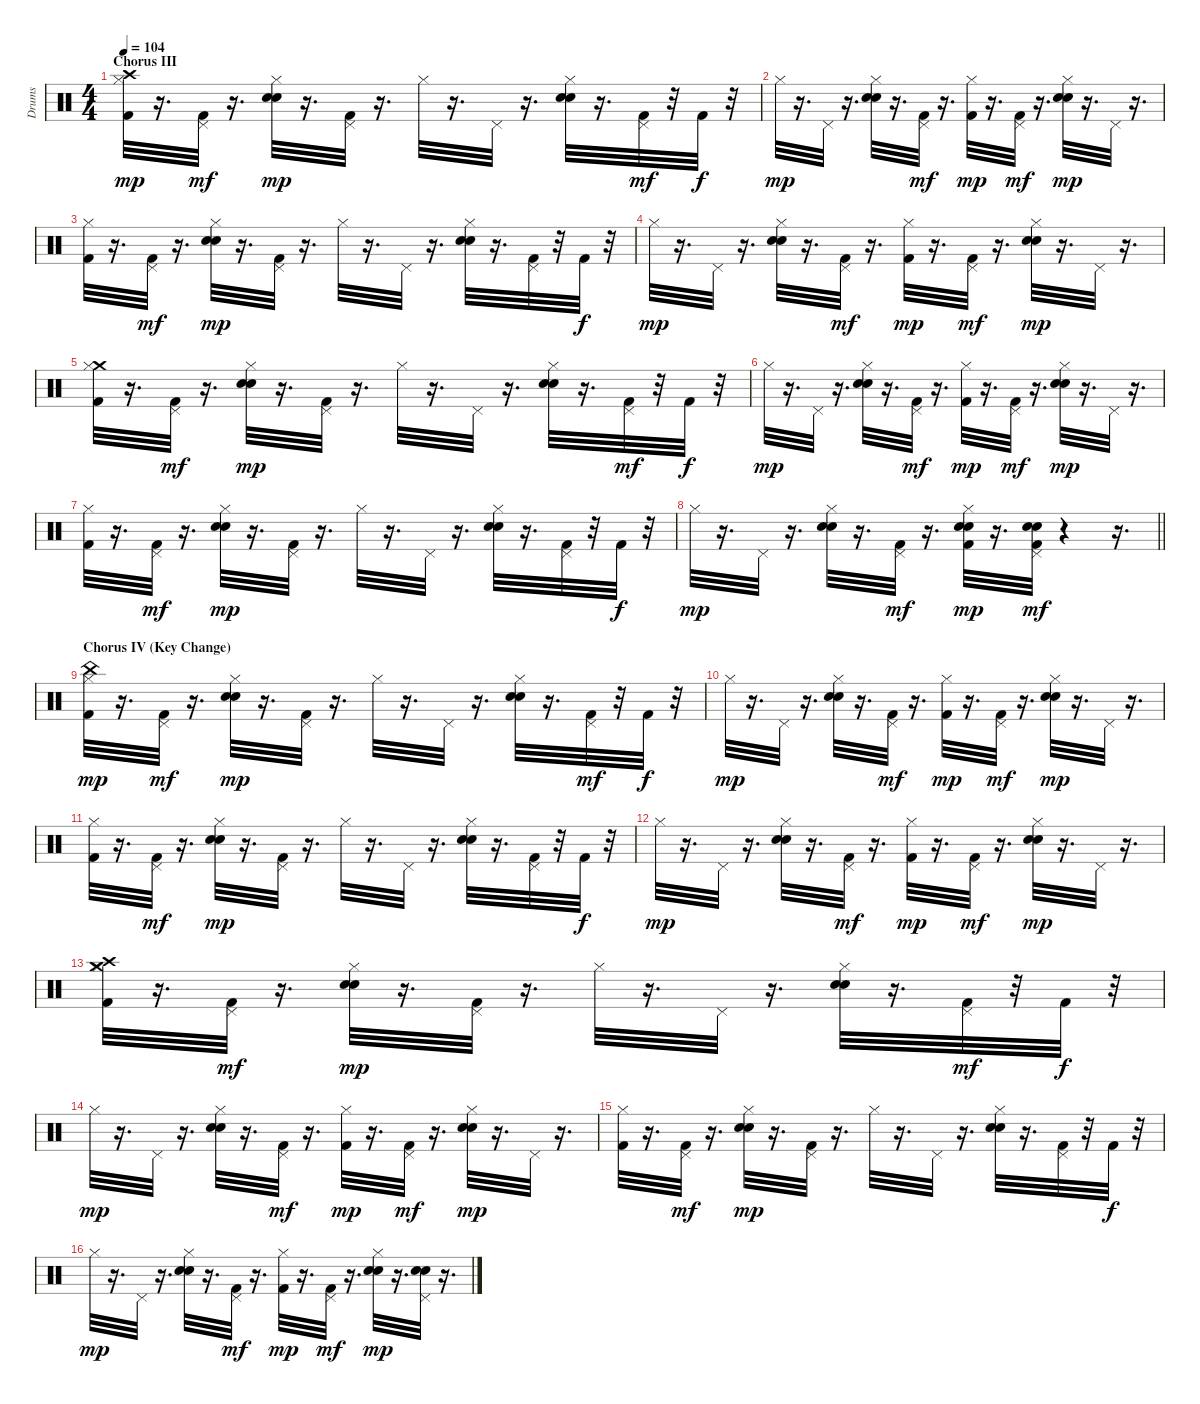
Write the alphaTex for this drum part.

\track ("Drums" "Drums") {instrument percussion}
\staff {score}
\articulation defaults
\ts (4 4)
\section ("" "Chorus III")
\tempo 104
\clef neutral
\ks c
("Crash high (hit)" "Hi-Hat (closed)" "Kick (hit) 2").32{dy mp} r.16{d} ("Pedal Hi-Hat (hit)" "Kick (hit) 2").32{dy mf} r.16{d} ("Hi-Hat (closed)" "Electric Snare (hit)" "Hand Clap (hit)").32{dy mp} r.16{d} ("Pedal Hi-Hat (hit)" "Kick (hit) 2").32 r.16{d} "Hi-Hat (closed)".32 r.16{d} "Pedal Hi-Hat (hit)".32 r.16{d} ("Hi-Hat (closed)" "Electric Snare (hit)" "Hand Clap (hit)").32 r.16{d} ("Pedal Hi-Hat (hit)" "Kick (hit) 2").32{dy mf} r.32 "Kick (hit) 2".32{dy f} r.32 |
"Hi-Hat (closed)".32{dy mp} r.16{d} "Pedal Hi-Hat (hit)".32 r.16{d} ("Hi-Hat (closed)" "Electric Snare (hit)" "Hand Clap (hit)").32 r.16{d} ("Pedal Hi-Hat (hit)" "Kick (hit) 2").32{dy mf} r.16{d} ("Hi-Hat (closed)" "Kick (hit) 2").32{dy mp} r.16{d} ("Pedal Hi-Hat (hit)" "Kick (hit) 2").32{dy mf} r.16{d} ("Hi-Hat (closed)" "Electric Snare (hit)" "Hand Clap (hit)").32{dy mp} r.16{d} "Pedal Hi-Hat (hit)".32 r.16{d} |
("Hi-Hat (closed)" "Kick (hit) 2").32 r.16{d} ("Pedal Hi-Hat (hit)" "Kick (hit) 2").32{dy mf} r.16{d} ("Hi-Hat (closed)" "Electric Snare (hit)" "Hand Clap (hit)").32{dy mp} r.16{d} ("Pedal Hi-Hat (hit)" "Kick (hit) 2").32 r.16{d} "Hi-Hat (closed)".32 r.16{d} "Pedal Hi-Hat (hit)".32 r.16{d} ("Hi-Hat (closed)" "Electric Snare (hit)" "Hand Clap (hit)").32 r.16{d} ("Pedal Hi-Hat (hit)" "Kick (hit) 2").32 r.32 "Kick (hit) 2".32{dy f} r.32 |
"Hi-Hat (closed)".32{dy mp} r.16{d} "Pedal Hi-Hat (hit)".32 r.16{d} ("Hi-Hat (closed)" "Electric Snare (hit)" "Hand Clap (hit)").32 r.16{d} ("Pedal Hi-Hat (hit)" "Kick (hit) 2").32{dy mf} r.16{d} ("Hi-Hat (closed)" "Kick (hit) 2").32{dy mp} r.16{d} ("Pedal Hi-Hat (hit)" "Kick (hit) 2").32{dy mf} r.16{d} ("Hi-Hat (closed)" "Electric Snare (hit)" "Hand Clap (hit)").32{dy mp} r.16{d} "Pedal Hi-Hat (hit)".32 r.16{d} |
("Crash medium (hit)" "Hi-Hat (closed)" "Kick (hit) 2").32 r.16{d} ("Pedal Hi-Hat (hit)" "Kick (hit) 2").32{dy mf} r.16{d} ("Hi-Hat (closed)" "Electric Snare (hit)" "Hand Clap (hit)").32{dy mp} r.16{d} ("Pedal Hi-Hat (hit)" "Kick (hit) 2").32 r.16{d} "Hi-Hat (closed)".32 r.16{d} "Pedal Hi-Hat (hit)".32 r.16{d} ("Hi-Hat (closed)" "Electric Snare (hit)" "Hand Clap (hit)").32 r.16{d} ("Pedal Hi-Hat (hit)" "Kick (hit) 2").32{dy mf} r.32 "Kick (hit) 2".32{dy f} r.32 |
"Hi-Hat (closed)".32{dy mp} r.16{d} "Pedal Hi-Hat (hit)".32 r.16{d} ("Hi-Hat (closed)" "Electric Snare (hit)" "Hand Clap (hit)").32 r.16{d} ("Pedal Hi-Hat (hit)" "Kick (hit) 2").32{dy mf} r.16{d} ("Hi-Hat (closed)" "Kick (hit) 2").32{dy mp} r.16{d} ("Pedal Hi-Hat (hit)" "Kick (hit) 2").32{dy mf} r.16{d} ("Hi-Hat (closed)" "Electric Snare (hit)" "Hand Clap (hit)").32{dy mp} r.16{d} "Pedal Hi-Hat (hit)".32 r.16{d} |
("Hi-Hat (closed)" "Kick (hit) 2").32 r.16{d} ("Pedal Hi-Hat (hit)" "Kick (hit) 2").32{dy mf} r.16{d} ("Hi-Hat (closed)" "Electric Snare (hit)" "Hand Clap (hit)").32{dy mp} r.16{d} ("Pedal Hi-Hat (hit)" "Kick (hit) 2").32 r.16{d} "Hi-Hat (closed)".32 r.16{d} "Pedal Hi-Hat (hit)".32 r.16{d} ("Hi-Hat (closed)" "Electric Snare (hit)" "Hand Clap (hit)").32 r.16{d} ("Pedal Hi-Hat (hit)" "Kick (hit) 2").32 r.32 "Kick (hit) 2".32{dy f} r.32 |
\barLineRight lightlight "Hi-Hat (closed)".32{dy mp}
r.16{d} "Pedal Hi-Hat (hit)".32 r.16{d} ("Hi-Hat (closed)" "Electric Snare (hit)" "Hand Clap (hit)").32 r.16{d} ("Pedal Hi-Hat (hit)" "Kick (hit) 2").32{dy mf} r.16{d} ("Hi-Hat (closed)" "Electric Snare (hit)" "Hand Clap (hit)" "Kick (hit) 2").32{dy mp} r.16{d} ("Pedal Hi-Hat (hit)" "Electric Snare (hit)" "Hand Clap (hit)" "Kick (hit) 2").32{dy mf} r.4 r.16{d} |
\section ("" "Chorus IV (Key Change)")
("China (hit)" "Hi-Hat (closed)" "Kick (hit) 2").32{dy mp} r.16{d} ("Pedal Hi-Hat (hit)" "Kick (hit) 2").32{dy mf} r.16{d} ("Hi-Hat (closed)" "Electric Snare (hit)" "Hand Clap (hit)").32{dy mp} r.16{d} ("Pedal Hi-Hat (hit)" "Kick (hit) 2").32 r.16{d} "Hi-Hat (closed)".32 r.16{d} "Pedal Hi-Hat (hit)".32 r.16{d} ("Hi-Hat (closed)" "Electric Snare (hit)" "Hand Clap (hit)").32 r.16{d} ("Pedal Hi-Hat (hit)" "Kick (hit) 2").32{dy mf} r.32 "Kick (hit) 2".32{dy f} r.32 |
"Hi-Hat (closed)".32{dy mp} r.16{d} "Pedal Hi-Hat (hit)".32 r.16{d} ("Hi-Hat (closed)" "Electric Snare (hit)" "Hand Clap (hit)").32 r.16{d} ("Pedal Hi-Hat (hit)" "Kick (hit) 2").32{dy mf} r.16{d} ("Hi-Hat (closed)" "Kick (hit) 2").32{dy mp} r.16{d} ("Pedal Hi-Hat (hit)" "Kick (hit) 2").32{dy mf} r.16{d} ("Hi-Hat (closed)" "Electric Snare (hit)" "Hand Clap (hit)").32{dy mp} r.16{d} "Pedal Hi-Hat (hit)".32 r.16{d} |
("Hi-Hat (closed)" "Kick (hit) 2").32 r.16{d} ("Pedal Hi-Hat (hit)" "Kick (hit) 2").32{dy mf} r.16{d} ("Hi-Hat (closed)" "Electric Snare (hit)" "Hand Clap (hit)").32{dy mp} r.16{d} ("Pedal Hi-Hat (hit)" "Kick (hit) 2").32 r.16{d} "Hi-Hat (closed)".32 r.16{d} "Pedal Hi-Hat (hit)".32 r.16{d} ("Hi-Hat (closed)" "Electric Snare (hit)" "Hand Clap (hit)").32 r.16{d} ("Pedal Hi-Hat (hit)" "Kick (hit) 2").32 r.32 "Kick (hit) 2".32{dy f} r.32 |
"Hi-Hat (closed)".32{dy mp} r.16{d} "Pedal Hi-Hat (hit)".32 r.16{d} ("Hi-Hat (closed)" "Electric Snare (hit)" "Hand Clap (hit)").32 r.16{d} ("Pedal Hi-Hat (hit)" "Kick (hit) 2").32{dy mf} r.16{d} ("Hi-Hat (closed)" "Kick (hit) 2").32{dy mp} r.16{d} ("Pedal Hi-Hat (hit)" "Kick (hit) 2").32{dy mf} r.16{d} ("Hi-Hat (closed)" "Electric Snare (hit)" "Hand Clap (hit)").32{dy mp} r.16{d} "Pedal Hi-Hat (hit)".32 r.16{d} |
("Crash medium (hit)" "Crash high (hit)" "Hi-Hat (closed)" "Kick (hit) 2").32 r.16{d} ("Pedal Hi-Hat (hit)" "Kick (hit) 2").32{dy mf} r.16{d} ("Hi-Hat (closed)" "Electric Snare (hit)" "Hand Clap (hit)").32{dy mp} r.16{d} ("Pedal Hi-Hat (hit)" "Kick (hit) 2").32 r.16{d} "Hi-Hat (closed)".32 r.16{d} "Pedal Hi-Hat (hit)".32 r.16{d} ("Hi-Hat (closed)" "Electric Snare (hit)" "Hand Clap (hit)").32 r.16{d} ("Pedal Hi-Hat (hit)" "Kick (hit) 2").32{dy mf} r.32 "Kick (hit) 2".32{dy f} r.32 |
"Hi-Hat (closed)".32{dy mp} r.16{d} "Pedal Hi-Hat (hit)".32 r.16{d} ("Hi-Hat (closed)" "Electric Snare (hit)" "Hand Clap (hit)").32 r.16{d} ("Pedal Hi-Hat (hit)" "Kick (hit) 2").32{dy mf} r.16{d} ("Hi-Hat (closed)" "Kick (hit) 2").32{dy mp} r.16{d} ("Pedal Hi-Hat (hit)" "Kick (hit) 2").32{dy mf} r.16{d} ("Hi-Hat (closed)" "Electric Snare (hit)" "Hand Clap (hit)").32{dy mp} r.16{d} "Pedal Hi-Hat (hit)".32 r.16{d} |
("Hi-Hat (closed)" "Kick (hit) 2").32 r.16{d} ("Pedal Hi-Hat (hit)" "Kick (hit) 2").32{dy mf} r.16{d} ("Hi-Hat (closed)" "Electric Snare (hit)" "Hand Clap (hit)").32{dy mp} r.16{d} ("Pedal Hi-Hat (hit)" "Kick (hit) 2").32 r.16{d} "Hi-Hat (closed)".32 r.16{d} "Pedal Hi-Hat (hit)".32 r.16{d} ("Hi-Hat (closed)" "Electric Snare (hit)" "Hand Clap (hit)").32 r.16{d} ("Pedal Hi-Hat (hit)" "Kick (hit) 2").32 r.32 "Kick (hit) 2".32{dy f} r.32 |
"Hi-Hat (closed)".32{dy mp} r.16{d} "Pedal Hi-Hat (hit)".32 r.16{d} ("Hi-Hat (closed)" "Electric Snare (hit)" "Hand Clap (hit)").32 r.16{d} ("Pedal Hi-Hat (hit)" "Kick (hit) 2").32{dy mf} r.16{d} ("Hi-Hat (closed)" "Kick (hit) 2").32{dy mp} r.16{d} ("Pedal Hi-Hat (hit)" "Kick (hit) 2").32{dy mf} r.16{d} ("Hi-Hat (closed)" "Electric Snare (hit)" "Hand Clap (hit)").32{dy mp} r.16{d} ("Pedal Hi-Hat (hit)" "Hand Clap (hit)" "Electric Snare (hit)").32 r.16{d}
